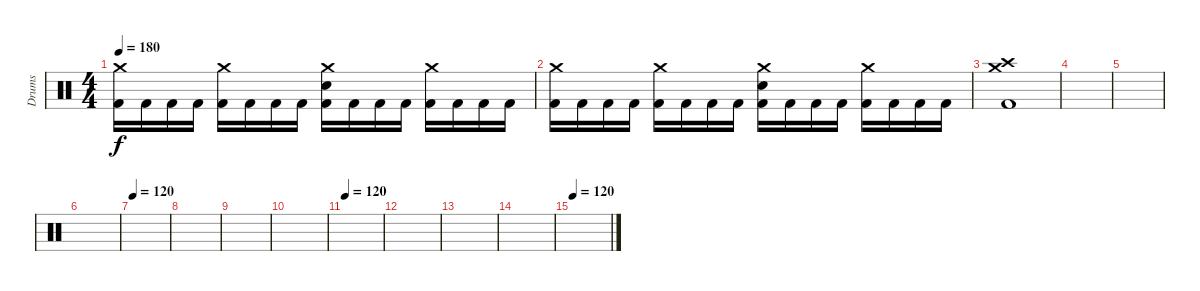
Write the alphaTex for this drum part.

\track ("Drums" "Drums") {instrument percussion}
\staff {score}
\articulation defaults
\ts (4 4)
\tempo 180
\clef neutral
\ks c
("Crash medium (hit)" "Kick (hit) 2").16{dy f} "Kick (hit) 2".16 "Kick (hit) 2".16 "Kick (hit) 2".16 ("Crash medium (hit)" "Kick (hit) 2").16 "Kick (hit) 2".16 "Kick (hit) 2".16 "Kick (hit) 2".16 ("Crash medium (hit)" "Snare (hit) 2" "Kick (hit) 2").16 "Kick (hit) 2".16 "Kick (hit) 2".16 "Kick (hit) 2".16 ("Crash medium (hit)" "Kick (hit) 2").16 "Kick (hit) 2".16 "Kick (hit) 2".16 "Kick (hit) 2".16 |
("Crash medium (hit)" "Kick (hit) 2").16 "Kick (hit) 2".16 "Kick (hit) 2".16 "Kick (hit) 2".16 ("Crash medium (hit)" "Kick (hit) 2").16 "Kick (hit) 2".16 "Kick (hit) 2".16 "Kick (hit) 2".16 ("Crash medium (hit)" "Snare (hit) 2" "Kick (hit) 2").16 "Kick (hit) 2".16 "Kick (hit) 2".16 "Kick (hit) 2".16 ("Crash medium (hit)" "Kick (hit) 2").16 "Kick (hit) 2".16 "Kick (hit) 2".16 "Kick (hit) 2".16 |
("Crash high (hit)" "Crash medium (hit)" "Kick (hit) 2").1 |
|
|
|
\tempo 120
|
|
|
|
\tempo 120
|
|
|
|
\tempo 120
